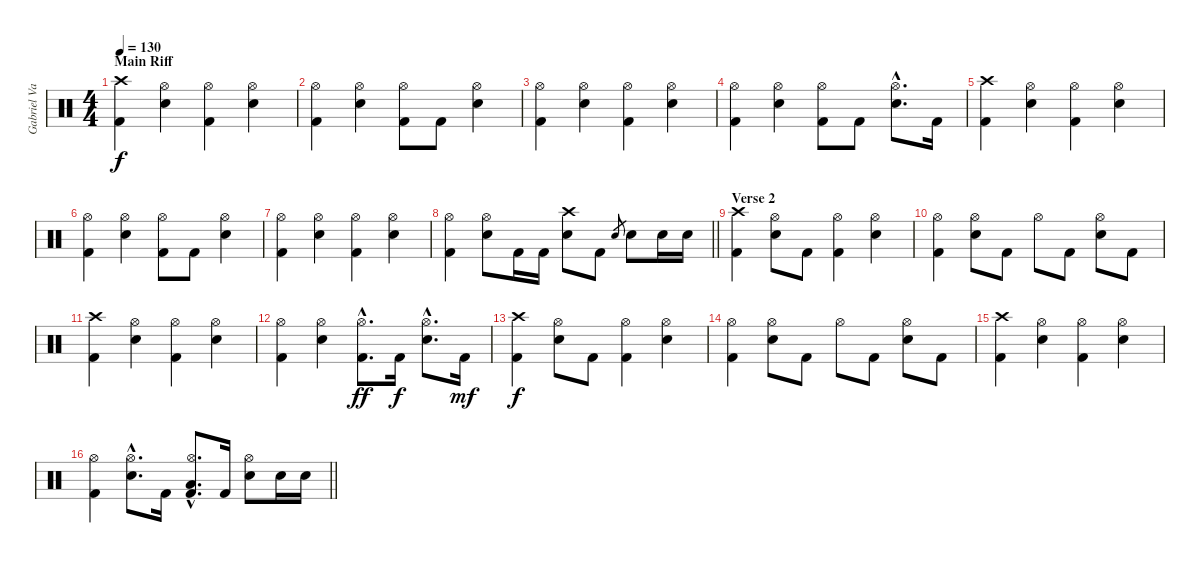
\track ("Gabriel Valerio" "Gabriel Va") {instrument percussion}
\staff {score}
\articulation defaults
\ts (4 4)
\section ("" "Main Riff")
\tempo 130
\clef neutral
\ks c
("Crash high (hit)" "Kick (hit) 2").4{dy f} ("Hi-Hat (open)" "Snare (hit) 2").4 ("Hi-Hat (open)" "Kick (hit) 2").4 ("Hi-Hat (open)" "Snare (hit) 2").4 |
("Hi-Hat (open)" "Kick (hit) 2").4 ("Hi-Hat (open)" "Snare (hit) 2").4 ("Hi-Hat (open)" "Kick (hit) 2").8 "Kick (hit) 2".8 ("Hi-Hat (open)" "Snare (hit) 2").4 |
("Hi-Hat (open)" "Kick (hit) 2").4 ("Hi-Hat (open)" "Snare (hit) 2").4 ("Hi-Hat (open)" "Kick (hit) 2").4 ("Hi-Hat (open)" "Snare (hit) 2").4 |
("Hi-Hat (open)" "Kick (hit) 2").4 ("Hi-Hat (open)" "Snare (hit) 2").4 ("Hi-Hat (open)" "Kick (hit) 2").8 "Kick (hit) 2".8 ("Hi-Hat (open)"{hac} "Snare (hit) 2"{hac}).8{d} "Kick (hit) 2".16 |
("Crash high (hit)" "Kick (hit) 2").4 ("Hi-Hat (open)" "Snare (hit) 2").4 ("Hi-Hat (open)" "Kick (hit) 2").4 ("Hi-Hat (open)" "Snare (hit) 2").4 |
("Hi-Hat (open)" "Kick (hit) 2").4 ("Hi-Hat (open)" "Snare (hit) 2").4 ("Hi-Hat (open)" "Kick (hit) 2").8 "Kick (hit) 2".8 ("Hi-Hat (open)" "Snare (hit) 2").4 |
("Hi-Hat (open)" "Kick (hit) 2").4 ("Hi-Hat (open)" "Snare (hit) 2").4 ("Hi-Hat (open)" "Kick (hit) 2").4 ("Hi-Hat (open)" "Snare (hit) 2").4 |
\barLineRight lightlight
("Hi-Hat (open)" "Kick (hit) 2").4 ("Hi-Hat (open)" "Snare (hit) 2").8 "Kick (hit) 2".16 "Kick (hit) 2".16 ("Crash high (hit)" "Snare (hit) 2").8 "Kick (hit) 2".8 "Snare (hit) 2".8{gr} "Snare (hit) 2".8 "Snare (hit) 2".16 "Snare (hit) 2".16 |
\section ("" "Verse 2")
("Crash high (hit)" "Kick (hit) 2").4 ("Hi-Hat (open)" "Snare (hit) 2").8 "Kick (hit) 2".8 ("Hi-Hat (open)" "Kick (hit) 2").4 ("Hi-Hat (open)" "Snare (hit) 2").4 |
("Hi-Hat (open)" "Kick (hit) 2").4 ("Hi-Hat (open)" "Snare (hit) 2").8 "Kick (hit) 2".8 "Hi-Hat (open)".8 "Kick (hit) 2".8 ("Hi-Hat (open)" "Snare (hit) 2").8 "Kick (hit) 2".8 |
("Crash high (hit)" "Kick (hit) 2").4 ("Hi-Hat (open)" "Snare (hit) 2").4 ("Hi-Hat (open)" "Kick (hit) 2").4 ("Hi-Hat (open)" "Snare (hit) 2").4 |
("Hi-Hat (open)" "Kick (hit) 2").4 ("Hi-Hat (open)" "Snare (hit) 2").4 ("Hi-Hat (open)"{hac} "Kick (hit) 2"{hac}).8{d dy ff} "Kick (hit) 2".16{dy f} ("Hi-Hat (open)"{hac} "Snare (hit) 2"{hac}).8{d} "Kick (hit) 2".16{dy mf} |
("Crash high (hit)" "Kick (hit) 2").4{dy f} ("Hi-Hat (open)" "Snare (hit) 2").8 "Kick (hit) 2".8 ("Hi-Hat (open)" "Kick (hit) 2").4 ("Hi-Hat (open)" "Snare (hit) 2").4 |
("Hi-Hat (open)" "Kick (hit) 2").4 ("Hi-Hat (open)" "Snare (hit) 2").8 "Kick (hit) 2".8 "Hi-Hat (open)".8 "Kick (hit) 2".8 ("Hi-Hat (open)" "Snare (hit) 2").8 "Kick (hit) 2".8 |
("Crash high (hit)" "Kick (hit) 2").4 ("Hi-Hat (open)" "Snare (hit) 2").4 ("Hi-Hat (open)" "Kick (hit) 2").4 ("Hi-Hat (open)" "Snare (hit) 2").4 |
\barLineRight lightlight
("Hi-Hat (open)" "Kick (hit) 2").4 ("Hi-Hat (open)"{hac} "Snare (hit) 2"{hac}).8{d} "Kick (hit) 2".16 ("Hi-Hat (open)"{hac} "Low Tom (hit)"{hac} "Kick (hit) 2"{hac}).8{d} "Kick (hit) 2".16 ("Hi-Hat (open)" "Snare (hit) 2").8 "Snare (hit) 2".16 "Snare (hit) 2".16
